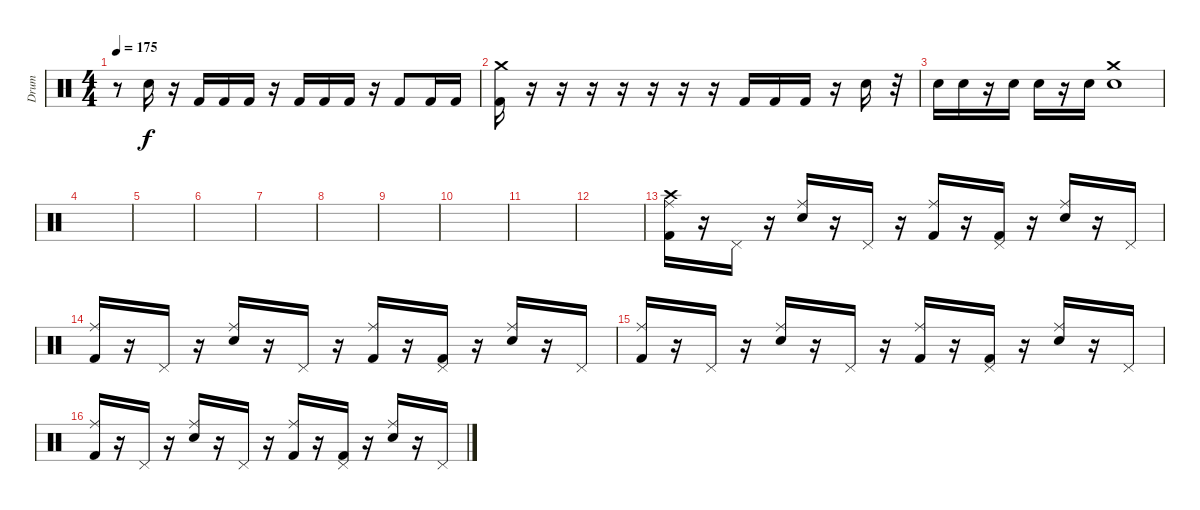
\track ("Drum" "Drum") {instrument percussion}
\staff {score}
\articulation defaults
\ts (4 4)
\tempo 175
\clef neutral
\ks c
r.8{dy f} "Electric Snare (hit)".16 r.16 "Kick (hit) 2".16 "Kick (hit) 2".16 "Kick (hit) 2".16 r.16 "Kick (hit) 2".16 "Kick (hit) 2".16 "Kick (hit) 2".16 r.16 "Kick (hit) 2".8 "Kick (hit) 2".16 "Kick (hit) 2".16 |
("Kick (hit) 2" "Crash medium (hit)").16 r.16 r.16 r.16 r.16 r.16 r.16 r.16 "Kick (hit) 2".16 "Kick (hit) 2".16 "Kick (hit) 2".16 r.16 "Electric Snare (hit)".16 r.32 |
"Electric Snare (hit)".16 "Electric Snare (hit)".16 r.16 "Electric Snare (hit)".16 "Electric Snare (hit)".16 r.16 "Electric Snare (hit)".16 ("Electric Snare (hit)" "Crash medium (hit)").1 |
|
|
|
|
|
|
|
|
|
("Ride (middle)" "Kick (hit) 2" "Crash high (hit)").16 r.16 "Pedal Hi-Hat (hit)".16 r.16 ("Ride (middle)" "Electric Snare (hit)").16 r.16 "Pedal Hi-Hat (hit)".16 r.16 ("Ride (middle)" "Kick (hit) 2").16 r.16 ("Pedal Hi-Hat (hit)" "Kick (hit) 2").16 r.16 ("Ride (middle)" "Electric Snare (hit)").16 r.16 "Pedal Hi-Hat (hit)".16 |
("Ride (middle)" "Kick (hit) 2").16 r.16 "Pedal Hi-Hat (hit)".16 r.16 ("Ride (middle)" "Electric Snare (hit)").16 r.16 "Pedal Hi-Hat (hit)".16 r.16 ("Ride (middle)" "Kick (hit) 2").16 r.16 ("Pedal Hi-Hat (hit)" "Kick (hit) 2").16 r.16 ("Ride (middle)" "Electric Snare (hit)").16 r.16 "Pedal Hi-Hat (hit)".16 |
("Ride (middle)" "Kick (hit) 2").16 r.16 "Pedal Hi-Hat (hit)".16 r.16 ("Ride (middle)" "Electric Snare (hit)").16 r.16 "Pedal Hi-Hat (hit)".16 r.16 ("Ride (middle)" "Kick (hit) 2").16 r.16 ("Pedal Hi-Hat (hit)" "Kick (hit) 2").16 r.16 ("Ride (middle)" "Electric Snare (hit)").16 r.16 "Pedal Hi-Hat (hit)".16 |
("Ride (middle)" "Kick (hit) 2").16 r.16 "Pedal Hi-Hat (hit)".16 r.16 ("Ride (middle)" "Electric Snare (hit)").16 r.16 "Pedal Hi-Hat (hit)".16 r.16 ("Ride (middle)" "Kick (hit) 2").16 r.16 ("Pedal Hi-Hat (hit)" "Kick (hit) 2").16 r.16 ("Ride (middle)" "Electric Snare (hit)").16 r.16 "Pedal Hi-Hat (hit)".16
